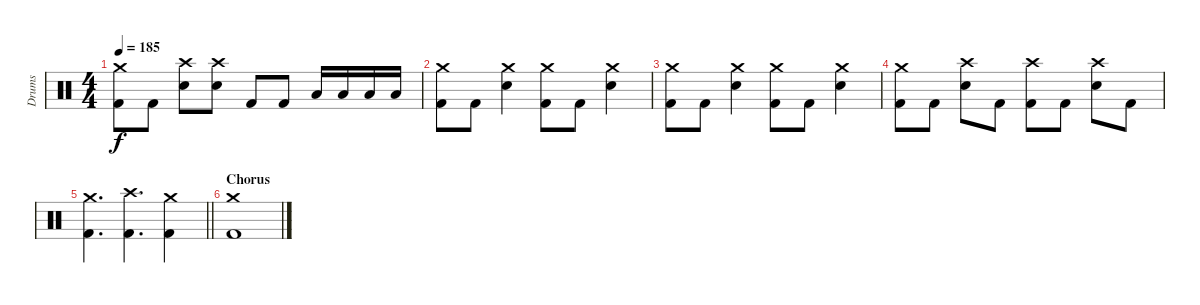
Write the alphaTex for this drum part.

\track ("Drums" "Drums") {instrument percussion}
\staff {score}
\articulation defaults
\ts (4 4)
\tempo 185
\clef neutral
\ks c
("Crash medium (hit)" "Kick (hit) 2").8{dy f} "Kick (hit) 2".8 ("Crash high (hit)" "Electric Snare (hit)").8 ("Crash high (hit)" "Electric Snare (hit)").8 "Kick (hit) 2".8 "Kick (hit) 2".8 "Low Floor Tom (hit)".16 "Low Floor Tom (hit)".16 "Low Floor Tom (hit)".16 "Low Floor Tom (hit)".16 |
("Crash medium (hit)" "Kick (hit) 2").8 "Kick (hit) 2".8 ("Crash medium (hit)" "Electric Snare (hit)").4 ("Crash medium (hit)" "Kick (hit) 2").8 "Kick (hit) 2".8 ("Crash medium (hit)" "Electric Snare (hit)").4 |
("Crash medium (hit)" "Kick (hit) 2").8 "Kick (hit) 2".8 ("Crash medium (hit)" "Electric Snare (hit)").4 ("Crash medium (hit)" "Kick (hit) 2").8 "Kick (hit) 2".8 ("Crash medium (hit)" "Electric Snare (hit)").4 |
("Crash medium (hit)" "Kick (hit) 2").8 "Kick (hit) 2".8 ("Crash high (hit)" "Electric Snare (hit)").8 "Kick (hit) 2".8 ("Crash high (hit)" "Kick (hit) 2").8 "Kick (hit) 2".8 ("Crash high (hit)" "Electric Snare (hit)").8 "Kick (hit) 2".8 |
\barLineRight lightlight
("Crash medium (hit)" "Kick (hit) 2").4{d} ("Crash high (hit)" "Kick (hit) 2").4{d} ("Crash medium (hit)" "Kick (hit) 2").4 |
\section ("" "Chorus")
("Crash medium (hit)" "Kick (hit) 2").1
